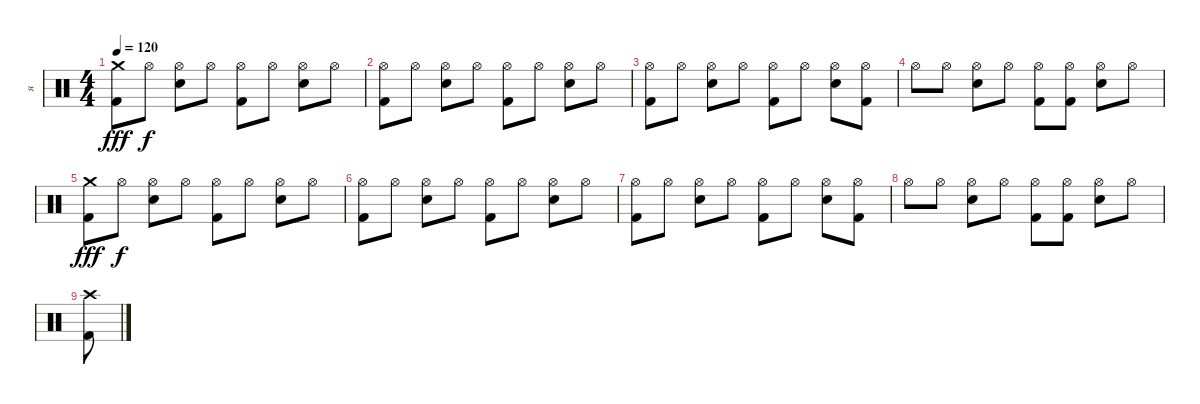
\track ("я" "я") {instrument percussion}
\staff {score}
\articulation defaults
\ts (4 4)
\tempo 120
\clef neutral
\ks c
("Kick (hit) 2" "Crash medium (hit)").8{dy fff} "Hi-Hat (open)".8{dy f} ("Snare (hit) 2" "Hi-Hat (open)").8 "Hi-Hat (open)".8 ("Kick (hit) 2" "Hi-Hat (open)").8 "Hi-Hat (open)".8 ("Snare (hit) 2" "Hi-Hat (open)").8 "Hi-Hat (open)".8 |
("Kick (hit) 2" "Hi-Hat (open)").8 "Hi-Hat (open)".8 ("Snare (hit) 2" "Hi-Hat (open)").8 "Hi-Hat (open)".8 ("Kick (hit) 2" "Hi-Hat (open)").8 "Hi-Hat (open)".8 ("Snare (hit) 2" "Hi-Hat (open)").8 "Hi-Hat (open)".8 |
("Kick (hit) 2" "Hi-Hat (open)").8 "Hi-Hat (open)".8 ("Snare (hit) 2" "Hi-Hat (open)").8 "Hi-Hat (open)".8 ("Kick (hit) 2" "Hi-Hat (open)").8 "Hi-Hat (open)".8 ("Snare (hit) 2" "Hi-Hat (open)").8 ("Kick (hit) 2" "Hi-Hat (open)").8 |
"Hi-Hat (open)".8 "Hi-Hat (open)".8 ("Snare (hit) 2" "Hi-Hat (open)").8 "Hi-Hat (open)".8 ("Kick (hit) 2" "Hi-Hat (open)").8 ("Kick (hit) 2" "Hi-Hat (open)").8 ("Snare (hit) 2" "Hi-Hat (open)").8 "Hi-Hat (open)".8 |
("Kick (hit) 2" "Crash medium (hit)").8{dy fff} "Hi-Hat (open)".8{dy f} ("Snare (hit) 2" "Hi-Hat (open)").8 "Hi-Hat (open)".8 ("Kick (hit) 2" "Hi-Hat (open)").8 "Hi-Hat (open)".8 ("Snare (hit) 2" "Hi-Hat (open)").8 "Hi-Hat (open)".8 |
("Kick (hit) 2" "Hi-Hat (open)").8 "Hi-Hat (open)".8 ("Snare (hit) 2" "Hi-Hat (open)").8 "Hi-Hat (open)".8 ("Kick (hit) 2" "Hi-Hat (open)").8 "Hi-Hat (open)".8 ("Snare (hit) 2" "Hi-Hat (open)").8 "Hi-Hat (open)".8 |
("Kick (hit) 2" "Hi-Hat (open)").8 "Hi-Hat (open)".8 ("Snare (hit) 2" "Hi-Hat (open)").8 "Hi-Hat (open)".8 ("Kick (hit) 2" "Hi-Hat (open)").8 "Hi-Hat (open)".8 ("Snare (hit) 2" "Hi-Hat (open)").8 ("Kick (hit) 2" "Hi-Hat (open)").8 |
"Hi-Hat (open)".8 "Hi-Hat (open)".8 ("Snare (hit) 2" "Hi-Hat (open)").8 "Hi-Hat (open)".8 ("Kick (hit) 2" "Hi-Hat (open)").8 ("Kick (hit) 2" "Hi-Hat (open)").8 ("Snare (hit) 2" "Hi-Hat (open)").8 "Hi-Hat (open)".8 |
("Crash high (hit)" "Kick (hit) 2").8
